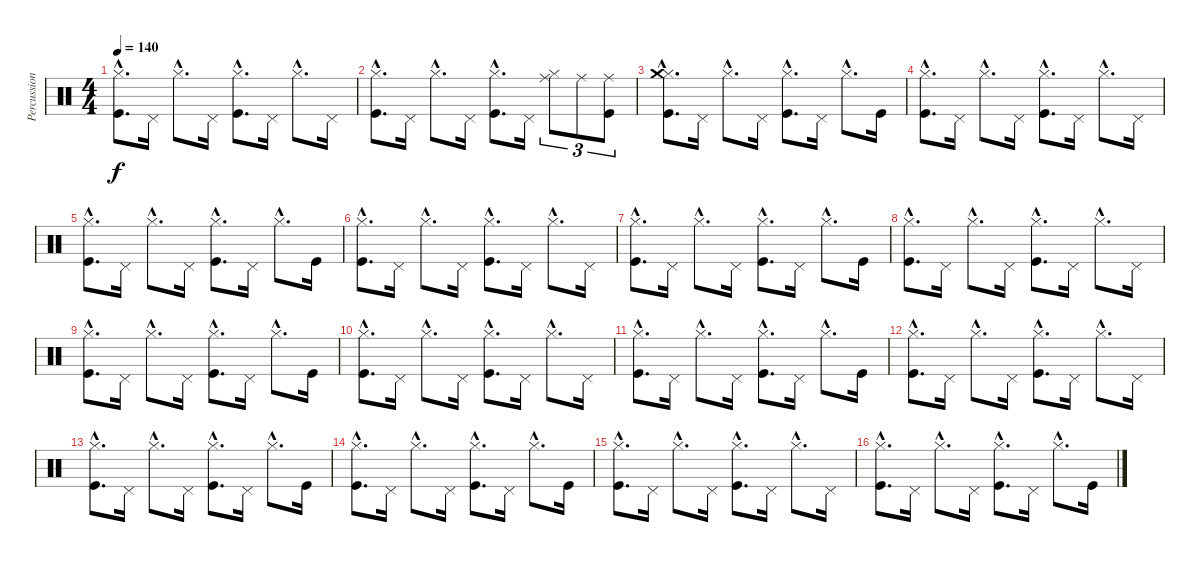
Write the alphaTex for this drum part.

\track ("Percussions" "Percussion") {instrument percussion}
\staff {score}
\articulation defaults
\ts (4 4)
\tempo 140
\clef neutral
\ks c
("Hi-Hat (closed)"{hac} "Kick (hit)"{hac}).8{d dy f} "Pedal Hi-Hat (hit)".16 "Hi-Hat (closed)"{hac}.8{d} "Pedal Hi-Hat (hit)".16 ("Hi-Hat (closed)"{hac} "Kick (hit)"{hac}).8{d} "Pedal Hi-Hat (hit)".16 "Hi-Hat (closed)"{hac}.8{d} "Pedal Hi-Hat (hit)".16 |
("Hi-Hat (closed)"{hac} "Kick (hit)"{hac}).8{d} "Pedal Hi-Hat (hit)".16 "Hi-Hat (closed)"{hac}.8{d} "Pedal Hi-Hat (hit)".16 ("Hi-Hat (closed)"{hac} "Kick (hit)"{hac}).8{d} "Pedal Hi-Hat (hit)".16 ("Hi-Hat (closed)" "Ride (middle)").8{tu (3 2)} "Ride (middle)".8{tu (3 2)} ("Kick (hit)" "Ride (middle)").8{tu (3 2)} |
("Hi-Hat (closed)"{hac} "Kick (hit)"{hac} "Crash medium (hit)"{hac}).8{d} "Pedal Hi-Hat (hit)".16 "Hi-Hat (closed)"{hac}.8{d} "Pedal Hi-Hat (hit)".16 ("Hi-Hat (closed)"{hac} "Kick (hit)"{hac}).8{d} "Pedal Hi-Hat (hit)".16 "Hi-Hat (closed)"{hac}.8{d} "Kick (hit)".16 |
("Hi-Hat (closed)"{hac} "Kick (hit)"{hac}).8{d} "Pedal Hi-Hat (hit)".16 "Hi-Hat (closed)"{hac}.8{d} "Pedal Hi-Hat (hit)".16 ("Hi-Hat (closed)"{hac} "Kick (hit)"{hac}).8{d} "Pedal Hi-Hat (hit)".16 "Hi-Hat (closed)"{hac}.8{d} "Pedal Hi-Hat (hit)".16 |
("Hi-Hat (closed)"{hac} "Kick (hit)"{hac}).8{d} "Pedal Hi-Hat (hit)".16 "Hi-Hat (closed)"{hac}.8{d} "Pedal Hi-Hat (hit)".16 ("Hi-Hat (closed)"{hac} "Kick (hit)"{hac}).8{d} "Pedal Hi-Hat (hit)".16 "Hi-Hat (closed)"{hac}.8{d} "Kick (hit)".16 |
("Hi-Hat (closed)"{hac} "Kick (hit)"{hac}).8{d} "Pedal Hi-Hat (hit)".16 "Hi-Hat (closed)"{hac}.8{d} "Pedal Hi-Hat (hit)".16 ("Hi-Hat (closed)"{hac} "Kick (hit)"{hac}).8{d} "Pedal Hi-Hat (hit)".16 "Hi-Hat (closed)"{hac}.8{d} "Pedal Hi-Hat (hit)".16 |
("Hi-Hat (closed)"{hac} "Kick (hit)"{hac}).8{d} "Pedal Hi-Hat (hit)".16 "Hi-Hat (closed)"{hac}.8{d} "Pedal Hi-Hat (hit)".16 ("Hi-Hat (closed)"{hac} "Kick (hit)"{hac}).8{d} "Pedal Hi-Hat (hit)".16 "Hi-Hat (closed)"{hac}.8{d} "Kick (hit)".16 |
("Hi-Hat (closed)"{hac} "Kick (hit)"{hac}).8{d} "Pedal Hi-Hat (hit)".16 "Hi-Hat (closed)"{hac}.8{d} "Pedal Hi-Hat (hit)".16 ("Hi-Hat (closed)"{hac} "Kick (hit)"{hac}).8{d} "Pedal Hi-Hat (hit)".16 "Hi-Hat (closed)"{hac}.8{d} "Pedal Hi-Hat (hit)".16 |
("Hi-Hat (closed)"{hac} "Kick (hit)"{hac}).8{d} "Pedal Hi-Hat (hit)".16 "Hi-Hat (closed)"{hac}.8{d} "Pedal Hi-Hat (hit)".16 ("Hi-Hat (closed)"{hac} "Kick (hit)"{hac}).8{d} "Pedal Hi-Hat (hit)".16 "Hi-Hat (closed)"{hac}.8{d} "Kick (hit)".16 |
("Hi-Hat (closed)"{hac} "Kick (hit)"{hac}).8{d} "Pedal Hi-Hat (hit)".16 "Hi-Hat (closed)"{hac}.8{d} "Pedal Hi-Hat (hit)".16 ("Hi-Hat (closed)"{hac} "Kick (hit)"{hac}).8{d} "Pedal Hi-Hat (hit)".16 "Hi-Hat (closed)"{hac}.8{d} "Pedal Hi-Hat (hit)".16 |
("Hi-Hat (closed)"{hac} "Kick (hit)"{hac}).8{d} "Pedal Hi-Hat (hit)".16 "Hi-Hat (closed)"{hac}.8{d} "Pedal Hi-Hat (hit)".16 ("Hi-Hat (closed)"{hac} "Kick (hit)"{hac}).8{d} "Pedal Hi-Hat (hit)".16 "Hi-Hat (closed)"{hac}.8{d} "Kick (hit)".16 |
("Hi-Hat (closed)"{hac} "Kick (hit)"{hac}).8{d} "Pedal Hi-Hat (hit)".16 "Hi-Hat (closed)"{hac}.8{d} "Pedal Hi-Hat (hit)".16 ("Hi-Hat (closed)"{hac} "Kick (hit)"{hac}).8{d} "Pedal Hi-Hat (hit)".16 "Hi-Hat (closed)"{hac}.8{d} "Pedal Hi-Hat (hit)".16 |
("Hi-Hat (closed)"{hac} "Kick (hit)"{hac}).8{d} "Pedal Hi-Hat (hit)".16 "Hi-Hat (closed)"{hac}.8{d} "Pedal Hi-Hat (hit)".16 ("Hi-Hat (closed)"{hac} "Kick (hit)"{hac}).8{d} "Pedal Hi-Hat (hit)".16 "Hi-Hat (closed)"{hac}.8{d} "Kick (hit)".16 |
("Hi-Hat (closed)"{hac} "Kick (hit)"{hac}).8{d} "Pedal Hi-Hat (hit)".16 "Hi-Hat (closed)"{hac}.8{d} "Pedal Hi-Hat (hit)".16 ("Hi-Hat (closed)"{hac} "Kick (hit)"{hac}).8{d} "Pedal Hi-Hat (hit)".16 "Hi-Hat (closed)"{hac}.8{d} "Kick (hit)".16 |
("Hi-Hat (closed)"{hac} "Kick (hit)"{hac}).8{d} "Pedal Hi-Hat (hit)".16 "Hi-Hat (closed)"{hac}.8{d} "Pedal Hi-Hat (hit)".16 ("Hi-Hat (closed)"{hac} "Kick (hit)"{hac}).8{d} "Pedal Hi-Hat (hit)".16 "Hi-Hat (closed)"{hac}.8{d} "Pedal Hi-Hat (hit)".16 |
("Hi-Hat (closed)"{hac} "Kick (hit)"{hac}).8{d} "Pedal Hi-Hat (hit)".16 "Hi-Hat (closed)"{hac}.8{d} "Pedal Hi-Hat (hit)".16 ("Hi-Hat (closed)"{hac} "Kick (hit)"{hac}).8{d} "Pedal Hi-Hat (hit)".16 "Hi-Hat (closed)"{hac}.8{d} "Kick (hit)".16
